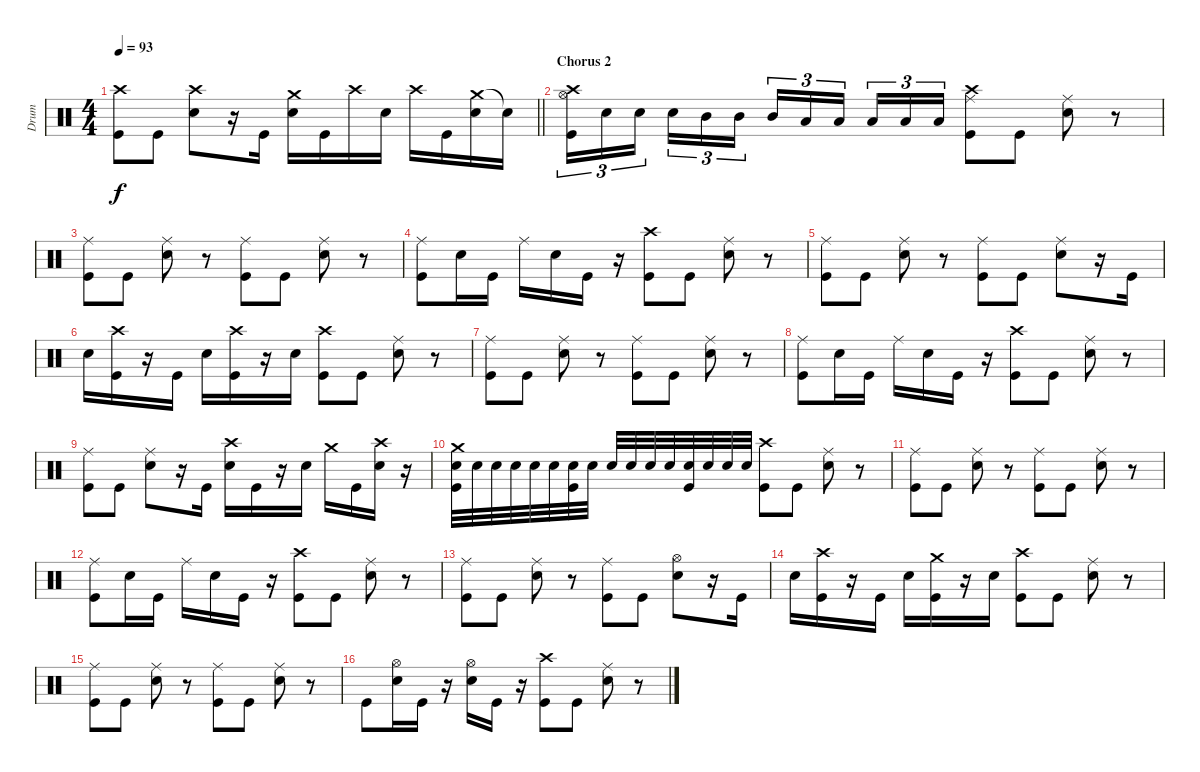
\track ("Drum" "Drum") {instrument percussion}
\staff {score}
\articulation defaults
\ts (4 4)
\tempo 93
\clef neutral
\barLineRight lightlight
\ks c
("Crash high (hit)" "Kick (hit)").8{dy f} "Kick (hit)".8 ("Crash high (hit)" "Snare (hit) 2").8 r.16 "Kick (hit)".16 ("Crash medium (hit)" "Snare (hit) 2").16 "Kick (hit)".16 "Crash high (hit)".16 "Snare (hit) 2".16 "Crash high (hit)".16 "Kick (hit)".16 ("Crash medium (hit)" "Snare (hit) 2").16 "Snare (hit)"{t}.16 |
\section ("" "Chorus 2")
("Crash high (hit)" "Hi-Hat (open)" "Kick (hit)").16{tu (3 2)} "Snare (hit) 2".16{tu (3 2)} "Snare (hit) 2".16{tu (3 2) beam splitsecondary} "Snare (hit) 2".16{tu (3 2)} "Mid Tom (hit)".16{tu (3 2)} "Mid Tom (hit)".16{tu (3 2)} "Mid Tom (hit)".16{tu (3 2)} "Low Floor Tom (hit)".16{tu (3 2)} "Low Floor Tom (hit)".16{tu (3 2) beam splitsecondary} "Low Floor Tom (hit)".16{tu (3 2)} "Low Floor Tom (hit)".16{tu (3 2)} "Low Floor Tom (hit)".16{tu (3 2)} ("Crash high (hit)" "Ride (middle)" "Kick (hit)").8 "Kick (hit)".8 ("Ride (middle)" "Snare (hit) 2").8 r.8 |
("Ride (middle)" "Kick (hit)").8 "Kick (hit)".8 ("Ride (middle)" "Snare (hit) 2").8 r.8 ("Ride (middle)" "Kick (hit)").8 "Kick (hit)".8 ("Ride (middle)" "Snare (hit) 2").8 r.8 |
("Ride (middle)" "Kick (hit)").8 "Snare (hit) 2".16 "Kick (hit)".16 "Ride (middle)".16 "Snare (hit) 2".16 "Kick (hit)".16 r.16 ("Crash high (hit)" "Kick (hit)").8 "Kick (hit)".8 ("Ride (middle)" "Snare (hit) 2").8 r.8 |
("Ride (middle)" "Kick (hit)").8 "Kick (hit)".8 ("Ride (middle)" "Snare (hit) 2").8 r.8 ("Ride (middle)" "Kick (hit)").8 "Kick (hit)".8 ("Ride (middle)" "Snare (hit) 2").8 r.16 "Kick (hit)".16 |
"Snare (hit) 2".16 ("Crash high (hit)" "Kick (hit)").16 r.16 "Kick (hit)".16 "Snare (hit) 2".16 ("Crash high (hit)" "Kick (hit)").16 r.16 "Snare (hit) 2".16 ("Crash high (hit)" "Kick (hit)").8 "Kick (hit)".8 ("Ride (middle)" "Snare (hit) 2").8 r.8 |
("Ride (middle)" "Kick (hit)").8 "Kick (hit)".8 ("Ride (middle)" "Snare (hit) 2").8 r.8 ("Ride (middle)" "Kick (hit)").8 "Kick (hit)".8 ("Ride (middle)" "Snare (hit) 2").8 r.8 |
("Ride (middle)" "Kick (hit)").8 "Snare (hit) 2".16 "Kick (hit)".16 "Ride (middle)".16 "Snare (hit) 2".16 "Kick (hit)".16 r.16 ("Crash high (hit)" "Kick (hit)").8 "Kick (hit)".8 ("Ride (middle)" "Snare (hit) 2").8 r.8 |
("Ride (middle)" "Kick (hit)").8 "Kick (hit)".8 ("Ride (middle)" "Snare (hit) 2").8 r.16 "Kick (hit)".16 ("Crash high (hit)" "Snare (hit) 2").16 "Kick (hit)".16 r.16 "Snare (hit) 2".16 "Crash medium (hit)".16 "Kick (hit)".16 ("Crash high (hit)" "Snare (hit) 2").16 r.16 |
("Crash medium (hit)" "Snare (hit) 2" "Kick (hit)").32 "Snare (hit) 2".32 "Snare (hit) 2".32 "Snare (hit) 2".32 "Snare (hit) 2".32 "Snare (hit) 2".32 ("Snare (hit) 2" "Kick (hit)").32 "Snare (hit) 2".32 "Snare (hit) 2".32 "Snare (hit) 2".32 "Snare (hit) 2".32 "Snare (hit) 2".32 ("Snare (hit) 2" "Kick (hit)").32 "Snare (hit) 2".32 "Snare (hit) 2".32 "Snare (hit) 2".32 ("Crash high (hit)" "Kick (hit)").8 "Kick (hit)".8 ("Ride (middle)" "Snare (hit) 2").8 r.8 |
("Ride (middle)" "Kick (hit)").8 "Kick (hit)".8 ("Ride (middle)" "Snare (hit) 2").8 r.8 ("Ride (middle)" "Kick (hit)").8 "Kick (hit)".8 ("Ride (middle)" "Snare (hit) 2").8 r.8 |
("Ride (middle)" "Kick (hit)").8 "Snare (hit) 2".16 "Kick (hit)".16 "Ride (middle)".16 "Snare (hit) 2".16 "Kick (hit)".16 r.16 ("Crash high (hit)" "Kick (hit)").8 "Kick (hit)".8 ("Ride (middle)" "Snare (hit) 2").8 r.8 |
("Ride (middle)" "Kick (hit)").8 "Kick (hit)".8 ("Ride (middle)" "Snare (hit) 2").8 r.8 ("Ride (middle)" "Kick (hit)").8 "Kick (hit)".8 ("Hi-Hat (open)" "Snare (hit) 2").8 r.16 "Kick (hit)".16 |
"Snare (hit) 2".16 ("Crash high (hit)" "Kick (hit)").16 r.16 "Kick (hit)".16 "Snare (hit) 2".16 ("Crash medium (hit)" "Kick (hit)").16 r.16 "Snare (hit) 2".16 ("Crash high (hit)" "Kick (hit)").8 "Kick (hit)".8 ("Ride (middle)" "Snare (hit) 2").8 r.8 |
("Ride (middle)" "Kick (hit)").8 "Kick (hit)".8 ("Ride (middle)" "Snare (hit) 2").8 r.8 ("Ride (middle)" "Kick (hit)").8 "Kick (hit)".8 ("Ride (middle)" "Snare (hit) 2").8 r.8 |
"Kick (hit)".8 ("Hi-Hat (open)" "Snare (hit) 2").16 "Kick (hit)".16 r.16 ("Hi-Hat (open)" "Snare (hit) 2").16 "Kick (hit)".16 r.16 ("Crash high (hit)" "Kick (hit)").8 "Kick (hit)".8 ("Ride (middle)" "Snare (hit) 2").8 r.8
